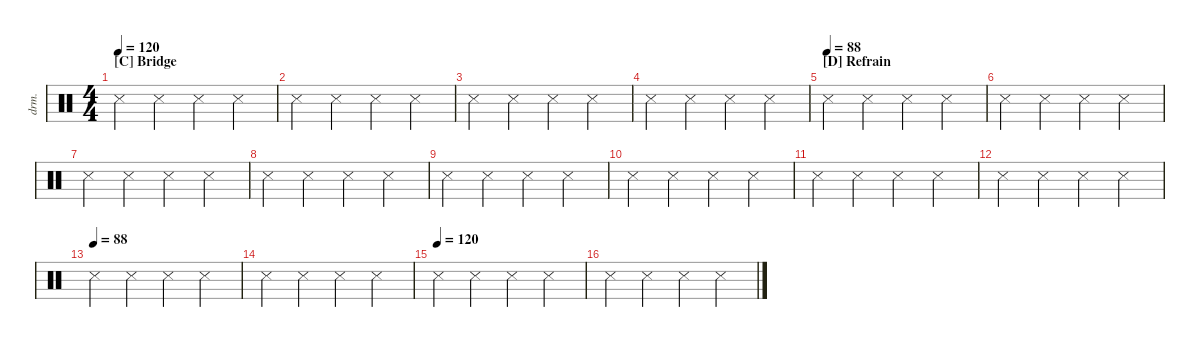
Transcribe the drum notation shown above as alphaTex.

\defaultSystemsLayout 4
\hideDynamics
\bracketExtendMode nobrackets
\otherSystemsTrackNameOrientation horizontal
\track ("Drumkit" "drm.") {instrument percussion}
\staff {score}
\articulation defaults
\ts (4 4)
\section ("C" "Bridge")
\tempo 120
\clef neutral
\ks c "Metronome (hit)".4{dy mf beam Down} "Metronome (hit)".4{beam Down} "Metronome (hit)".4{beam Down} "Metronome (hit)".4{beam Down}
|
"Metronome (hit)".4{beam Down} "Metronome (hit)".4{beam Down} "Metronome (hit)".4{beam Down} "Metronome (hit)".4{beam Down} |
"Metronome (hit)".4{beam Down} "Metronome (hit)".4{beam Down} "Metronome (hit)".4{beam Down} "Metronome (hit)".4{beam Down} |
"Metronome (hit)".4{beam Down} "Metronome (hit)".4{beam Down} "Metronome (hit)".4{beam Down} "Metronome (hit)".4{beam Down} |
\section ("D" "Refrain")
\tempo (88)
"Metronome (hit)".4{beam Down} "Metronome (hit)".4{beam Down} "Metronome (hit)".4{beam Down} "Metronome (hit)".4{beam Down} |
"Metronome (hit)".4{beam Down} "Metronome (hit)".4{beam Down} "Metronome (hit)".4{beam Down} "Metronome (hit)".4{beam Down} |
"Metronome (hit)".4{beam Down} "Metronome (hit)".4{beam Down} "Metronome (hit)".4{beam Down} "Metronome (hit)".4{beam Down} |
\beaming (8 2 2 2 2)
"Metronome (hit)".4{beam Down} "Metronome (hit)".4{beam Down} "Metronome (hit)".4{beam Down} "Metronome (hit)".4{beam Down} |
"Metronome (hit)".4{beam Down} "Metronome (hit)".4{beam Down} "Metronome (hit)".4{beam Down} "Metronome (hit)".4{beam Down} |
"Metronome (hit)".4{beam Down} "Metronome (hit)".4{beam Down} "Metronome (hit)".4{beam Down} "Metronome (hit)".4{beam Down} |
"Metronome (hit)".4{beam Down} "Metronome (hit)".4{beam Down} "Metronome (hit)".4{beam Down} "Metronome (hit)".4{beam Down} |
"Metronome (hit)".4{beam Down} "Metronome (hit)".4{beam Down} "Metronome (hit)".4{beam Down} "Metronome (hit)".4{beam Down} |
\tempo (88)
"Metronome (hit)".4{beam Down} "Metronome (hit)".4{beam Down} "Metronome (hit)".4{beam Down} "Metronome (hit)".4{beam Down} |
"Metronome (hit)".4{beam Down} "Metronome (hit)".4{beam Down} "Metronome (hit)".4{beam Down} "Metronome (hit)".4{beam Down} |
\tempo (120)
"Metronome (hit)".4{beam Down} "Metronome (hit)".4{beam Down} "Metronome (hit)".4{beam Down} "Metronome (hit)".4{beam Down} |
"Metronome (hit)".4{beam Down} "Metronome (hit)".4{beam Down} "Metronome (hit)".4{beam Down} "Metronome (hit)".4{beam Down}
